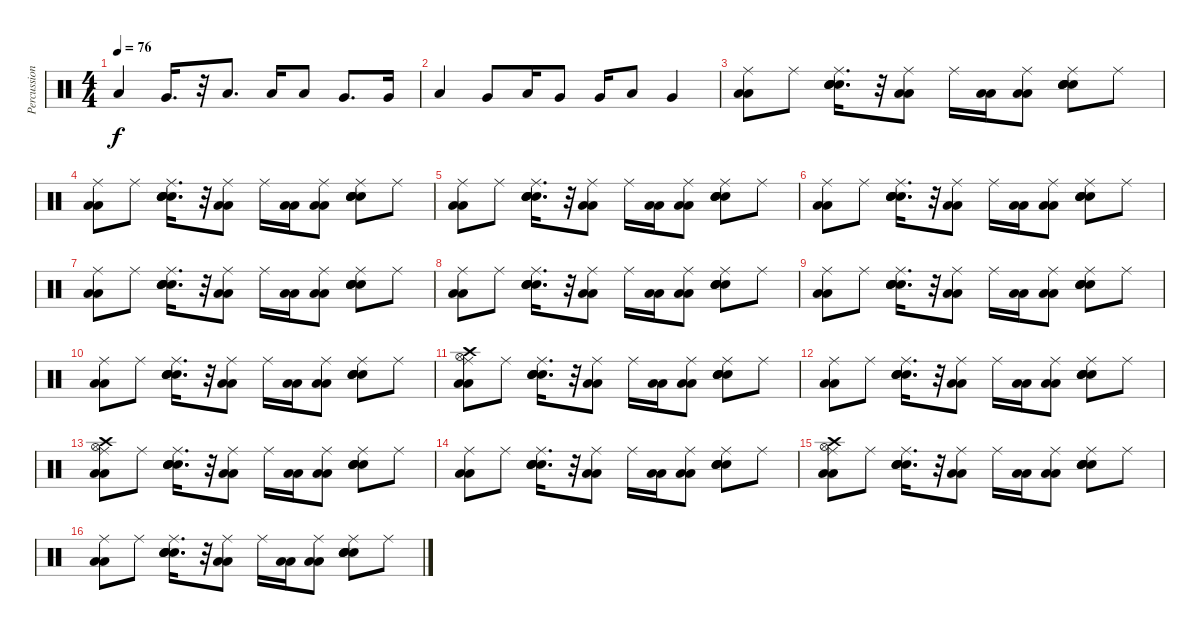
\track ("Percussion" "Percussion") {instrument percussion}
\staff {score}
\articulation defaults
\ts (4 4)
\tempo 76
\clef neutral
\ks c "Low Floor Tom (hit)".4{dy f} "Very Low Tom (hit)".16{d}
r.32 "Low Floor Tom (hit)".8{d} "Low Floor Tom (hit)".16 "Low Floor Tom (hit)".8 "Very Low Tom (hit)".8{d} "Very Low Tom (hit)".16 |
"Low Floor Tom (hit)".4 "Very Low Tom (hit)".8 "Low Floor Tom (hit)".16 "Very Low Tom (hit)".8 "Very Low Tom (hit)".16 "Low Floor Tom (hit)".8 "Very Low Tom (hit)".4 |
("Low Floor Tom (hit)" "Low Floor Tom (hit)" "Ride (middle)").8{volume 7} "Ride (middle)".8 ("Electric Snare (hit)" "Electric Snare (hit)" "Snare (hit) 2" "Ride (middle)" "Snare (hit) 2").16{d} r.32 ("Low Floor Tom (hit)" "Low Floor Tom (hit)" "Ride (middle)").8 "Ride (middle)".16 ("Low Floor Tom (hit)" "Low Floor Tom (hit)").16 ("Low Floor Tom (hit)" "Low Floor Tom (hit)" "Ride (middle)").8 ("Electric Snare (hit)" "Electric Snare (hit)" "Snare (hit) 2" "Ride (middle)" "Snare (hit) 2").8 "Ride (middle)".8 |
("Low Floor Tom (hit)" "Low Floor Tom (hit)" "Ride (middle)").8 "Ride (middle)".8 ("Electric Snare (hit)" "Electric Snare (hit)" "Snare (hit) 2" "Ride (middle)" "Snare (hit) 2").16{d} r.32 ("Low Floor Tom (hit)" "Low Floor Tom (hit)" "Ride (middle)").8 "Ride (middle)".16 ("Low Floor Tom (hit)" "Low Floor Tom (hit)").16 ("Low Floor Tom (hit)" "Low Floor Tom (hit)" "Ride (middle)").8 ("Electric Snare (hit)" "Electric Snare (hit)" "Snare (hit) 2" "Ride (middle)" "Snare (hit) 2").8 "Ride (middle)".8 |
("Low Floor Tom (hit)" "Low Floor Tom (hit)" "Ride (middle)").8 "Ride (middle)".8 ("Electric Snare (hit)" "Electric Snare (hit)" "Snare (hit) 2" "Ride (middle)" "Snare (hit) 2").16{d} r.32 ("Low Floor Tom (hit)" "Low Floor Tom (hit)" "Ride (middle)").8 "Ride (middle)".16 ("Low Floor Tom (hit)" "Low Floor Tom (hit)").16 ("Low Floor Tom (hit)" "Low Floor Tom (hit)" "Ride (middle)").8 ("Electric Snare (hit)" "Electric Snare (hit)" "Snare (hit) 2" "Ride (middle)" "Snare (hit) 2").8 "Ride (middle)".8 |
("Low Floor Tom (hit)" "Low Floor Tom (hit)" "Ride (middle)").8 "Ride (middle)".8 ("Electric Snare (hit)" "Electric Snare (hit)" "Snare (hit) 2" "Ride (middle)" "Snare (hit) 2").16{d} r.32 ("Low Floor Tom (hit)" "Low Floor Tom (hit)" "Ride (middle)").8 "Ride (middle)".16 ("Low Floor Tom (hit)" "Low Floor Tom (hit)").16 ("Low Floor Tom (hit)" "Low Floor Tom (hit)" "Ride (middle)").8 ("Electric Snare (hit)" "Electric Snare (hit)" "Snare (hit) 2" "Ride (middle)" "Snare (hit) 2").8 "Ride (middle)".8 |
("Low Floor Tom (hit)" "Low Floor Tom (hit)" "Ride (middle)").8 "Ride (middle)".8 ("Electric Snare (hit)" "Electric Snare (hit)" "Snare (hit) 2" "Ride (middle)" "Snare (hit) 2").16{d} r.32 ("Low Floor Tom (hit)" "Low Floor Tom (hit)" "Ride (middle)").8 "Ride (middle)".16 ("Low Floor Tom (hit)" "Low Floor Tom (hit)").16 ("Low Floor Tom (hit)" "Low Floor Tom (hit)" "Ride (middle)").8 ("Electric Snare (hit)" "Electric Snare (hit)" "Snare (hit) 2" "Ride (middle)" "Snare (hit) 2").8 "Ride (middle)".8 |
("Low Floor Tom (hit)" "Low Floor Tom (hit)" "Ride (middle)").8 "Ride (middle)".8 ("Electric Snare (hit)" "Electric Snare (hit)" "Snare (hit) 2" "Ride (middle)" "Snare (hit) 2").16{d} r.32 ("Low Floor Tom (hit)" "Low Floor Tom (hit)" "Ride (middle)").8 "Ride (middle)".16 ("Low Floor Tom (hit)" "Low Floor Tom (hit)").16 ("Low Floor Tom (hit)" "Low Floor Tom (hit)" "Ride (middle)").8 ("Electric Snare (hit)" "Electric Snare (hit)" "Snare (hit) 2" "Ride (middle)" "Snare (hit) 2").8 "Ride (middle)".8 |
("Low Floor Tom (hit)" "Low Floor Tom (hit)" "Ride (middle)").8 "Ride (middle)".8 ("Electric Snare (hit)" "Electric Snare (hit)" "Snare (hit) 2" "Ride (middle)" "Snare (hit) 2").16{d} r.32 ("Low Floor Tom (hit)" "Low Floor Tom (hit)" "Ride (middle)").8 "Ride (middle)".16 ("Low Floor Tom (hit)" "Low Floor Tom (hit)").16 ("Low Floor Tom (hit)" "Low Floor Tom (hit)" "Ride (middle)").8 ("Electric Snare (hit)" "Electric Snare (hit)" "Snare (hit) 2" "Ride (middle)" "Snare (hit) 2").8 "Ride (middle)".8 |
("Low Floor Tom (hit)" "Low Floor Tom (hit)" "Ride (middle)").8 "Ride (middle)".8 ("Electric Snare (hit)" "Electric Snare (hit)" "Snare (hit) 2" "Ride (middle)" "Snare (hit) 2").16{d} r.32 ("Low Floor Tom (hit)" "Low Floor Tom (hit)" "Ride (middle)").8 "Ride (middle)".16 ("Low Floor Tom (hit)" "Low Floor Tom (hit)").16 ("Low Floor Tom (hit)" "Low Floor Tom (hit)" "Ride (middle)").8 ("Electric Snare (hit)" "Electric Snare (hit)" "Snare (hit) 2" "Ride (middle)" "Snare (hit) 2").8 "Ride (middle)".8 |
("Hi-Hat (open)" "Low Floor Tom (hit)" "Low Floor Tom (hit)" "Ride (middle)" "Crash high (hit)").8 "Ride (middle)".8 ("Electric Snare (hit)" "Electric Snare (hit)" "Snare (hit) 2" "Ride (middle)" "Snare (hit) 2").16{d} r.32 ("Low Floor Tom (hit)" "Low Floor Tom (hit)" "Ride (middle)").8 "Ride (middle)".16 ("Low Floor Tom (hit)" "Low Floor Tom (hit)").16 ("Low Floor Tom (hit)" "Low Floor Tom (hit)" "Ride (middle)").8 ("Electric Snare (hit)" "Electric Snare (hit)" "Snare (hit) 2" "Ride (middle)" "Snare (hit) 2").8 "Ride (middle)".8 |
("Low Floor Tom (hit)" "Low Floor Tom (hit)" "Ride (middle)").8 "Ride (middle)".8 ("Electric Snare (hit)" "Electric Snare (hit)" "Snare (hit) 2" "Ride (middle)" "Snare (hit) 2").16{d} r.32 ("Low Floor Tom (hit)" "Low Floor Tom (hit)" "Ride (middle)").8 "Ride (middle)".16 ("Low Floor Tom (hit)" "Low Floor Tom (hit)").16 ("Low Floor Tom (hit)" "Low Floor Tom (hit)" "Ride (middle)").8 ("Electric Snare (hit)" "Electric Snare (hit)" "Snare (hit) 2" "Ride (middle)" "Snare (hit) 2").8 "Ride (middle)".8 |
("Hi-Hat (open)" "Low Floor Tom (hit)" "Low Floor Tom (hit)" "Ride (middle)" "Crash high (hit)").8 "Ride (middle)".8 ("Electric Snare (hit)" "Electric Snare (hit)" "Snare (hit) 2" "Ride (middle)" "Snare (hit) 2").16{d} r.32 ("Low Floor Tom (hit)" "Low Floor Tom (hit)" "Ride (middle)").8 "Ride (middle)".16 ("Low Floor Tom (hit)" "Low Floor Tom (hit)").16 ("Low Floor Tom (hit)" "Low Floor Tom (hit)" "Ride (middle)").8 ("Electric Snare (hit)" "Electric Snare (hit)" "Snare (hit) 2" "Ride (middle)" "Snare (hit) 2").8 "Ride (middle)".8 |
("Low Floor Tom (hit)" "Low Floor Tom (hit)" "Ride (middle)").8 "Ride (middle)".8 ("Electric Snare (hit)" "Electric Snare (hit)" "Snare (hit) 2" "Ride (middle)" "Snare (hit) 2").16{d} r.32 ("Low Floor Tom (hit)" "Low Floor Tom (hit)" "Ride (middle)").8 "Ride (middle)".16 ("Low Floor Tom (hit)" "Low Floor Tom (hit)").16 ("Low Floor Tom (hit)" "Low Floor Tom (hit)" "Ride (middle)").8 ("Electric Snare (hit)" "Electric Snare (hit)" "Snare (hit) 2" "Ride (middle)" "Snare (hit) 2").8 "Ride (middle)".8 |
("Hi-Hat (open)" "Low Floor Tom (hit)" "Low Floor Tom (hit)" "Ride (middle)" "Crash high (hit)").8 "Ride (middle)".8 ("Electric Snare (hit)" "Electric Snare (hit)" "Snare (hit) 2" "Ride (middle)" "Snare (hit) 2").16{d} r.32 ("Low Floor Tom (hit)" "Low Floor Tom (hit)" "Ride (middle)").8 "Ride (middle)".16 ("Low Floor Tom (hit)" "Low Floor Tom (hit)").16 ("Low Floor Tom (hit)" "Low Floor Tom (hit)" "Ride (middle)").8 ("Electric Snare (hit)" "Electric Snare (hit)" "Snare (hit) 2" "Ride (middle)" "Snare (hit) 2").8 "Ride (middle)".8 |
("Low Floor Tom (hit)" "Low Floor Tom (hit)" "Ride (middle)").8 "Ride (middle)".8 ("Electric Snare (hit)" "Electric Snare (hit)" "Snare (hit) 2" "Ride (middle)" "Snare (hit) 2").16{d} r.32 ("Low Floor Tom (hit)" "Low Floor Tom (hit)" "Ride (middle)").8 "Ride (middle)".16 ("Low Floor Tom (hit)" "Low Floor Tom (hit)").16 ("Low Floor Tom (hit)" "Low Floor Tom (hit)" "Ride (middle)").8 ("Electric Snare (hit)" "Electric Snare (hit)" "Snare (hit) 2" "Ride (middle)" "Snare (hit) 2").8 "Ride (middle)".8
